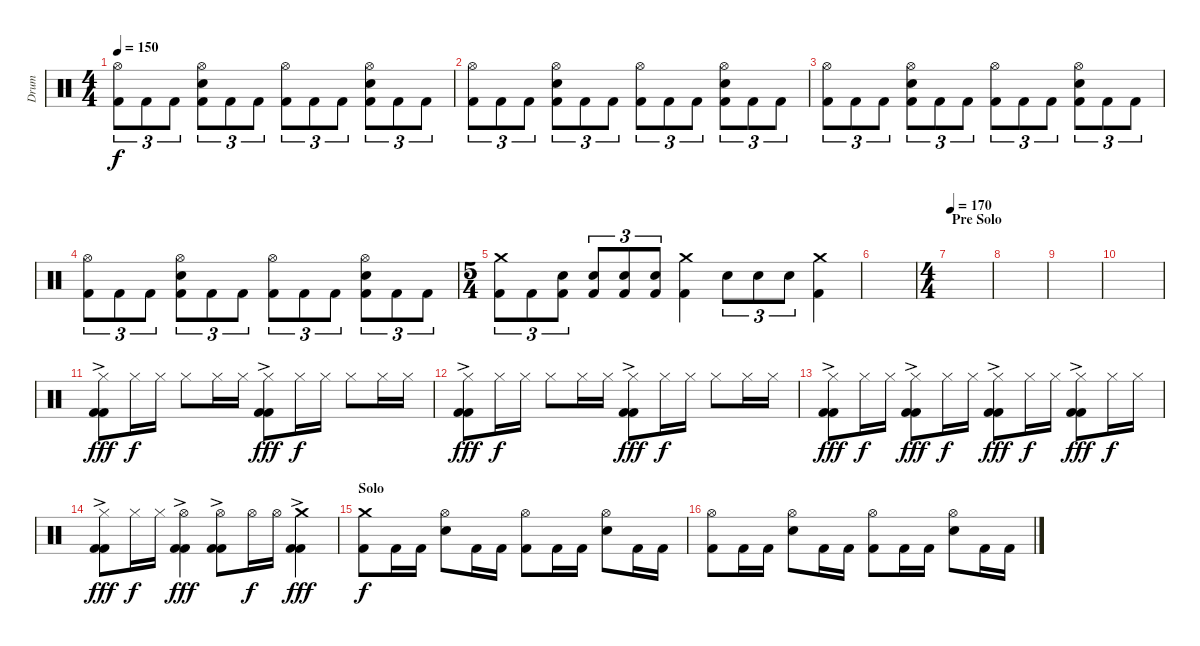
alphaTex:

\track ("Drum" "Drum") {instrument percussion}
\staff
\articulation defaults
\ts (4 4)
\tempo 150
\clef neutral
\ks c
("Hi-Hat (open)" "Kick (hit) 2").8{tu (3 2) dy f} "Kick (hit) 2".8{tu (3 2)} "Kick (hit) 2".8{tu (3 2)} ("Hi-Hat (open)" "Electric Snare (hit)" "Kick (hit) 2").8{tu (3 2)} "Kick (hit) 2".8{tu (3 2)} "Kick (hit) 2".8{tu (3 2)} ("Hi-Hat (open)" "Kick (hit) 2").8{tu (3 2)} "Kick (hit) 2".8{tu (3 2)} "Kick (hit) 2".8{tu (3 2)} ("Hi-Hat (open)" "Electric Snare (hit)" "Kick (hit) 2").8{tu (3 2)} "Kick (hit) 2".8{tu (3 2)} "Kick (hit) 2".8{tu (3 2)} |
("Hi-Hat (open)" "Kick (hit) 2").8{tu (3 2)} "Kick (hit) 2".8{tu (3 2)} "Kick (hit) 2".8{tu (3 2)} ("Hi-Hat (open)" "Electric Snare (hit)" "Kick (hit) 2").8{tu (3 2)} "Kick (hit) 2".8{tu (3 2)} "Kick (hit) 2".8{tu (3 2)} ("Hi-Hat (open)" "Kick (hit) 2").8{tu (3 2)} "Kick (hit) 2".8{tu (3 2)} "Kick (hit) 2".8{tu (3 2)} ("Hi-Hat (open)" "Electric Snare (hit)" "Kick (hit) 2").8{tu (3 2)} "Kick (hit) 2".8{tu (3 2)} "Kick (hit) 2".8{tu (3 2)} |
("Hi-Hat (open)" "Kick (hit) 2").8{tu (3 2)} "Kick (hit) 2".8{tu (3 2)} "Kick (hit) 2".8{tu (3 2)} ("Hi-Hat (open)" "Electric Snare (hit)" "Kick (hit) 2").8{tu (3 2)} "Kick (hit) 2".8{tu (3 2)} "Kick (hit) 2".8{tu (3 2)} ("Hi-Hat (open)" "Kick (hit) 2").8{tu (3 2)} "Kick (hit) 2".8{tu (3 2)} "Kick (hit) 2".8{tu (3 2)} ("Hi-Hat (open)" "Electric Snare (hit)" "Kick (hit) 2").8{tu (3 2)} "Kick (hit) 2".8{tu (3 2)} "Kick (hit) 2".8{tu (3 2)} |
("Hi-Hat (open)" "Kick (hit) 2").8{tu (3 2)} "Kick (hit) 2".8{tu (3 2)} "Kick (hit) 2".8{tu (3 2)} ("Hi-Hat (open)" "Electric Snare (hit)" "Kick (hit) 2").8{tu (3 2)} "Kick (hit) 2".8{tu (3 2)} "Kick (hit) 2".8{tu (3 2)} ("Hi-Hat (open)" "Kick (hit) 2").8{tu (3 2)} "Kick (hit) 2".8{tu (3 2)} "Kick (hit) 2".8{tu (3 2)} ("Hi-Hat (open)" "Electric Snare (hit)" "Kick (hit) 2").8{tu (3 2)} "Kick (hit) 2".8{tu (3 2)} "Kick (hit) 2".8{tu (3 2)} |
\ts (5 4)
("Crash medium (hit)" "Kick (hit) 2").8{tu (3 2)} "Kick (hit) 2".8{tu (3 2)} ("Electric Snare (hit)" "Kick (hit) 2").8{tu (3 2)} ("Electric Snare (hit)" "Kick (hit) 2").8{tu (3 2)} ("Electric Snare (hit)" "Kick (hit) 2").8{tu (3 2)} ("Electric Snare (hit)" "Kick (hit) 2").8{tu (3 2)} ("Crash medium (hit)" "Kick (hit) 2").4 "Electric Snare (hit)".8{tu (3 2)} "Electric Snare (hit)".8{tu (3 2)} "Electric Snare (hit)".8{tu (3 2)} ("Crash medium (hit)" "Kick (hit) 2").4 |
|
\ts (4 4)
\section ("" "Pre Solo")
\tempo 170
|
|
|
|
("Hi-Hat (closed)" "Kick (hit) 2" "Kick (hit) 2"{ac}).8{dy fff} "Hi-Hat (closed)".16{dy f} "Hi-Hat (closed)".16 "Hi-Hat (closed)".8 "Hi-Hat (closed)".16 "Hi-Hat (closed)".16 ("Hi-Hat (closed)" "Kick (hit) 2" "Kick (hit) 2"{ac}).8{dy fff} "Hi-Hat (closed)".16{dy f} "Hi-Hat (closed)".16 "Hi-Hat (closed)".8 "Hi-Hat (closed)".16 "Hi-Hat (closed)".16 |
("Hi-Hat (closed)" "Kick (hit) 2" "Kick (hit) 2"{ac}).8{dy fff} "Hi-Hat (closed)".16{dy f} "Hi-Hat (closed)".16 "Hi-Hat (closed)".8 "Hi-Hat (closed)".16 "Hi-Hat (closed)".16 ("Hi-Hat (closed)" "Kick (hit) 2" "Kick (hit) 2"{ac}).8{dy fff} "Hi-Hat (closed)".16{dy f} "Hi-Hat (closed)".16 "Hi-Hat (closed)".8 "Hi-Hat (closed)".16 "Hi-Hat (closed)".16 |
("Hi-Hat (closed)" "Kick (hit) 2" "Kick (hit) 2"{ac}).8{dy fff} "Hi-Hat (closed)".16{dy f} "Hi-Hat (closed)".16 ("Hi-Hat (closed)" "Kick (hit) 2" "Kick (hit) 2"{ac}).8{dy fff} "Hi-Hat (closed)".16{dy f} "Hi-Hat (closed)".16 ("Hi-Hat (closed)" "Kick (hit) 2" "Kick (hit) 2"{ac}).8{dy fff} "Hi-Hat (closed)".16{dy f} "Hi-Hat (closed)".16 ("Hi-Hat (closed)" "Kick (hit) 2" "Kick (hit) 2"{ac}).8{dy fff} "Hi-Hat (closed)".16{dy f} "Hi-Hat (closed)".16 |
("Hi-Hat (closed)" "Kick (hit) 2" "Kick (hit) 2"{ac}).8{dy fff} "Hi-Hat (closed)".16{dy f} "Hi-Hat (closed)".16 ("Hi-Hat (open)" "Kick (hit) 2" "Kick (hit) 2"{ac}).4{dy fff} ("Hi-Hat (open)" "Kick (hit) 2" "Kick (hit) 2"{ac}).8 "Hi-Hat (open)".16{dy f} "Hi-Hat (open)".16 ("Crash medium (hit)" "Kick (hit) 2" "Kick (hit) 2"{ac}).4{dy fff} |
\section ("" "Solo")
("Crash medium (hit)" "Kick (hit) 2").8{dy f} "Kick (hit) 2".16 "Kick (hit) 2".16 ("Hi-Hat (open)" "Electric Snare (hit)").8 "Kick (hit) 2".16 "Kick (hit) 2".16 ("Hi-Hat (open)" "Kick (hit) 2").8 "Kick (hit) 2".16 "Kick (hit) 2".16 ("Hi-Hat (open)" "Electric Snare (hit)").8 "Kick (hit) 2".16 "Kick (hit) 2".16 |
("Hi-Hat (open)" "Kick (hit) 2").8 "Kick (hit) 2".16 "Kick (hit) 2".16 ("Hi-Hat (open)" "Electric Snare (hit)").8 "Kick (hit) 2".16 "Kick (hit) 2".16 ("Hi-Hat (open)" "Kick (hit) 2").8 "Kick (hit) 2".16 "Kick (hit) 2".16 ("Hi-Hat (open)" "Electric Snare (hit)").8 "Kick (hit) 2".16 "Kick (hit) 2".16
